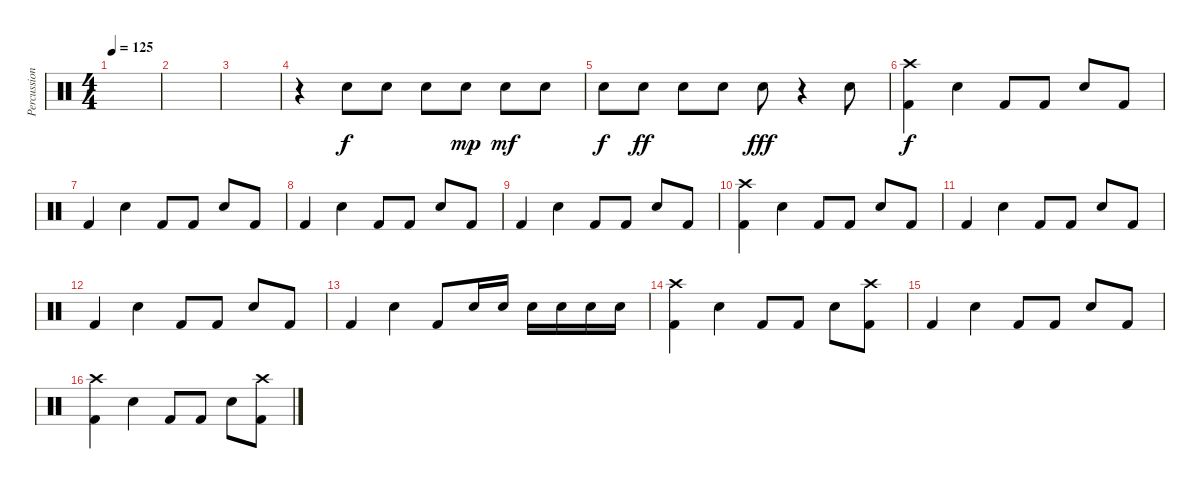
\track ("Percussion" "Percussion") {instrument percussion}
\staff {score}
\articulation defaults
\ts (4 4)
\tempo 125
\clef neutral
\ks c
|
|
|
r.4 "Snare (hit) 2".8 "Snare (hit) 2".8 "Snare (hit) 2".8 "Snare (hit) 2".8{dy mp} "Snare (hit) 2".8{dy mf} "Snare (hit) 2".8 |
"Snare (hit) 2".8{dy f} "Snare (hit) 2".8{dy ff} "Snare (hit) 2".8 "Snare (hit) 2".8 "Snare (hit) 2".8{dy fff} r.4 "Snare (hit) 2".8 |
("Crash high (hit)" "Kick (hit) 2").4{dy f} "Snare (hit) 2".4 "Kick (hit) 2".8 "Kick (hit) 2".8 "Snare (hit) 2".8 "Kick (hit) 2".8 |
"Kick (hit) 2".4 "Snare (hit) 2".4 "Kick (hit) 2".8 "Kick (hit) 2".8 "Snare (hit) 2".8 "Kick (hit) 2".8 |
"Kick (hit) 2".4 "Snare (hit) 2".4 "Kick (hit) 2".8 "Kick (hit) 2".8 "Snare (hit) 2".8 "Kick (hit) 2".8 |
"Kick (hit) 2".4 "Snare (hit) 2".4 "Kick (hit) 2".8 "Kick (hit) 2".8 "Snare (hit) 2".8 "Kick (hit) 2".8 |
("Crash high (hit)" "Kick (hit) 2").4 "Snare (hit) 2".4 "Kick (hit) 2".8 "Kick (hit) 2".8 "Snare (hit) 2".8 "Kick (hit) 2".8 |
"Kick (hit) 2".4 "Snare (hit) 2".4 "Kick (hit) 2".8 "Kick (hit) 2".8 "Snare (hit) 2".8 "Kick (hit) 2".8 |
"Kick (hit) 2".4 "Snare (hit) 2".4 "Kick (hit) 2".8 "Kick (hit) 2".8 "Snare (hit) 2".8 "Kick (hit) 2".8 |
"Kick (hit) 2".4 "Snare (hit) 2".4 "Kick (hit) 2".8 "Snare (hit) 2".16 "Snare (hit) 2".16 "Snare (hit) 2".16 "Snare (hit) 2".16 "Snare (hit) 2".16 "Snare (hit) 2".16 |
("Crash high (hit)" "Kick (hit) 2").4 "Snare (hit) 2".4 "Kick (hit) 2".8 "Kick (hit) 2".8 "Snare (hit) 2".8 ("Crash high (hit)" "Kick (hit) 2").8 |
"Kick (hit) 2".4 "Snare (hit) 2".4 "Kick (hit) 2".8 "Kick (hit) 2".8 "Snare (hit) 2".8 "Kick (hit) 2".8 |
("Crash high (hit)" "Kick (hit) 2").4 "Snare (hit) 2".4 "Kick (hit) 2".8 "Kick (hit) 2".8 "Snare (hit) 2".8 ("Crash high (hit)" "Kick (hit) 2").8
